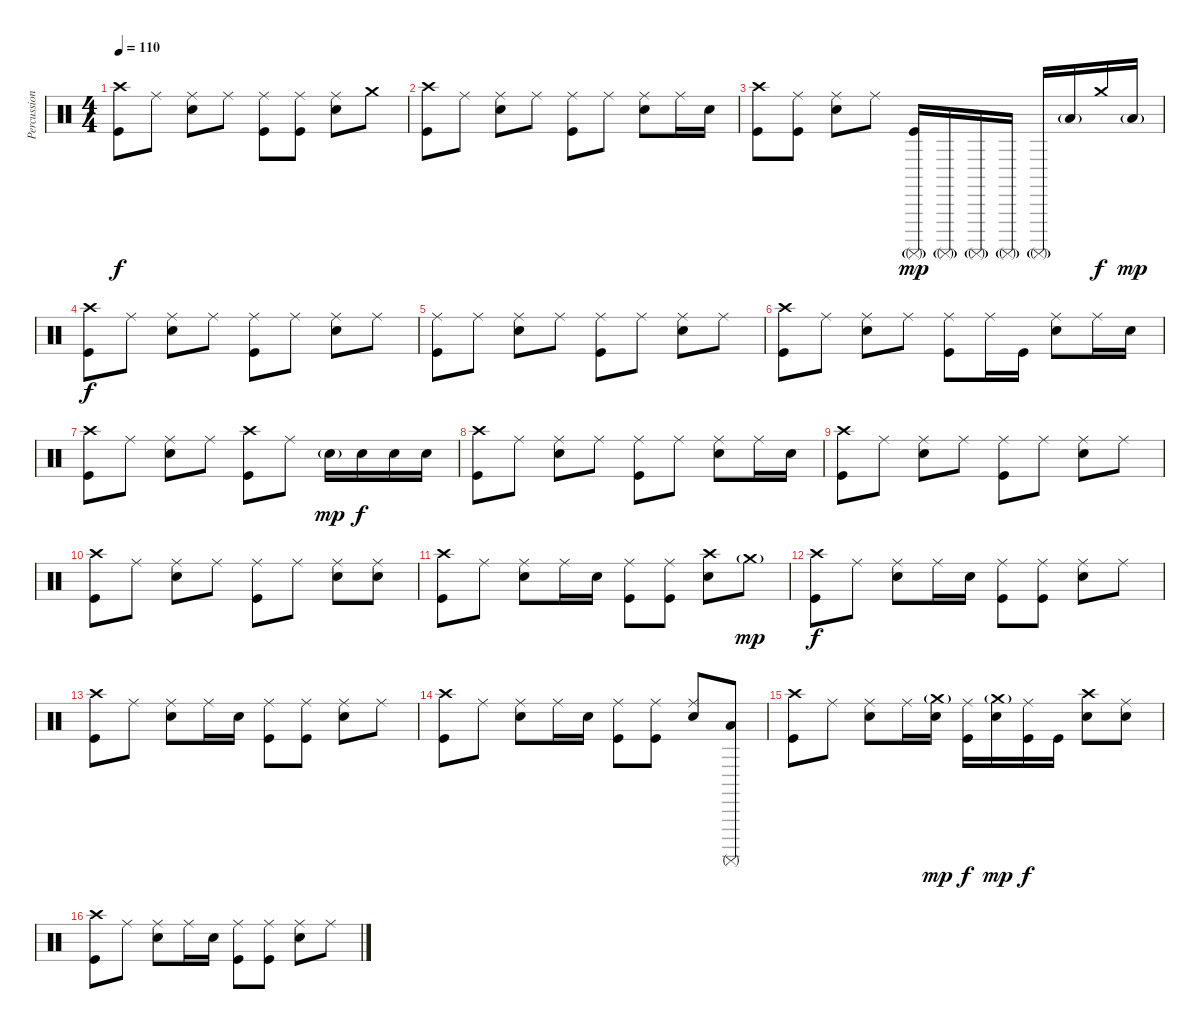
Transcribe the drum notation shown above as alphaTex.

\track ("Percussions" "Percussion") {instrument percussion}
\staff {score}
\articulation defaults
\ts (4 4)
\tempo 110
\clef neutral
\ks c
("Crash high (hit)" "Kick (hit)").8{dy f} "Ride (middle)".8 ("Ride (middle)" "Snare (hit) 2").8 "Ride (middle)".8 ("Ride (middle)" "Kick (hit)").8 ("Ride (middle)" "Kick (hit)").8 ("Ride (middle)" "Snare (hit) 2").8 "Crash medium (hit)".8 |
("Crash high (hit)" "Kick (hit)").8 "Ride (middle)".8 ("Ride (middle)" "Snare (hit) 2").8 "Ride (middle)".8 ("Ride (middle)" "Kick (hit)").8 "Ride (middle)".8 ("Ride (middle)" "Snare (hit) 2").8 "Ride (middle)".16 "Snare (hit) 2".16 |
("Crash high (hit)" "Kick (hit)").8 ("Ride (middle)" "Kick (hit)").8 ("Ride (middle)" "Snare (hit) 2").8 "Ride (middle)".8 ("Surdo (mute)"{g} "Kick (hit)").16{dy mp} "Surdo (mute)"{g}.16 "Surdo (mute)"{g}.16 "Surdo (mute)"{g}.16 "Surdo (mute)"{g}.16 "Low Floor Tom (hit)"{g}.16 "Crash medium (hit)".16{dy f} "Low Floor Tom (hit)"{g}.16{dy mp} |
("Crash high (hit)" "Kick (hit)").8{dy f} "Ride (middle)".8 ("Ride (middle)" "Snare (hit) 2").8 "Ride (middle)".8 ("Ride (middle)" "Kick (hit)").8 "Ride (middle)".8 ("Ride (middle)" "Snare (hit) 2").8 "Ride (middle)".8 |
("Ride (middle)" "Kick (hit)").8 "Ride (middle)".8 ("Ride (middle)" "Snare (hit) 2").8 "Ride (middle)".8 ("Ride (middle)" "Kick (hit)").8 "Ride (middle)".8 ("Ride (middle)" "Snare (hit) 2").8 "Ride (middle)".8 |
("Crash high (hit)" "Kick (hit)").8 "Ride (middle)".8 ("Ride (middle)" "Snare (hit) 2").8 "Ride (middle)".8 ("Ride (middle)" "Kick (hit)").8 "Ride (middle)".16 "Kick (hit)".16 ("Ride (middle)" "Snare (hit) 2").8 "Ride (middle)".16 "Snare (hit) 2".16 |
("Crash high (hit)" "Kick (hit)").8 "Ride (middle)".8 ("Ride (middle)" "Snare (hit) 2").8 "Ride (middle)".8 ("Crash high (hit)" "Kick (hit)").8 "Ride (middle)".8 "Snare (hit) 2"{g}.16{dy mp} "Snare (hit) 2".16{dy f} "Snare (hit) 2".16 "Snare (hit) 2".16 |
("Crash high (hit)" "Kick (hit)").8 "Ride (middle)".8 ("Ride (middle)" "Snare (hit) 2").8 "Ride (middle)".8 ("Ride (middle)" "Kick (hit)").8 "Ride (middle)".8 ("Ride (middle)" "Snare (hit) 2").8 "Ride (middle)".16 "Snare (hit) 2".16 |
("Crash high (hit)" "Kick (hit)").8 "Ride (middle)".8 ("Ride (middle)" "Snare (hit) 2").8 "Ride (middle)".8 ("Ride (middle)" "Kick (hit)").8 "Ride (middle)".8 ("Ride (middle)" "Snare (hit) 2").8 "Ride (middle)".8 |
("Crash high (hit)" "Kick (hit)").8 "Ride (middle)".8 ("Ride (middle)" "Snare (hit) 2").8 "Ride (middle)".8 ("Ride (middle)" "Kick (hit)").8 "Ride (middle)".8 ("Ride (middle)" "Snare (hit) 2").8 ("Ride (middle)" "Snare (hit) 2").8 |
("Crash high (hit)" "Kick (hit)").8 "Ride (middle)".8 ("Ride (middle)" "Snare (hit) 2").8 "Ride (middle)".16 "Snare (hit) 2".16 ("Ride (middle)" "Kick (hit)").8 ("Ride (middle)" "Kick (hit)").8 ("Crash high (hit)" "Snare (hit) 2").8 "Crash medium (hit)"{g}.8{dy mp} |
("Crash high (hit)" "Kick (hit)").8{dy f} "Ride (middle)".8 ("Ride (middle)" "Snare (hit) 2").8 "Ride (middle)".16 "Snare (hit) 2".16 ("Ride (middle)" "Kick (hit)").8 ("Ride (middle)" "Kick (hit)").8 ("Ride (middle)" "Snare (hit) 2").8 "Ride (middle)".8 |
("Crash high (hit)" "Kick (hit)").8 "Ride (middle)".8 ("Ride (middle)" "Snare (hit) 2").8 "Ride (middle)".16 "Snare (hit) 2".16 ("Ride (middle)" "Kick (hit)").8 ("Ride (middle)" "Kick (hit)").8 ("Ride (middle)" "Snare (hit) 2").8 "Ride (middle)".8 |
("Crash high (hit)" "Kick (hit)").8 "Ride (middle)".8 ("Ride (middle)" "Snare (hit) 2").8 "Ride (middle)".16 "Snare (hit) 2".16 ("Ride (middle)" "Kick (hit)").8 ("Ride (middle)" "Kick (hit)").8 ("Ride (middle)" "Snare (hit) 2").8 ("Surdo (mute)" "Low Floor Tom (hit)").8 |
("Crash high (hit)" "Kick (hit)").8 "Ride (middle)".8 ("Ride (middle)" "Snare (hit) 2").8 "Ride (middle)".16 ("Crash medium (hit)"{g} "Snare (hit) 2").16{dy mp} ("Ride (middle)" "Kick (hit)").16{dy f} ("Crash medium (hit)"{g} "Snare (hit) 2").16{dy mp} ("Ride (middle)" "Kick (hit)").16{dy f} "Kick (hit)".16 ("Crash high (hit)" "Snare (hit) 2").8 ("Ride (middle)" "Snare (hit) 2").8 |
("Crash high (hit)" "Kick (hit)").8 "Ride (middle)".8 ("Ride (middle)" "Snare (hit) 2").8 "Ride (middle)".16 "Snare (hit) 2".16 ("Ride (middle)" "Kick (hit)").8 ("Ride (middle)" "Kick (hit)").8 ("Ride (middle)" "Snare (hit) 2").8 "Ride (middle)".8
